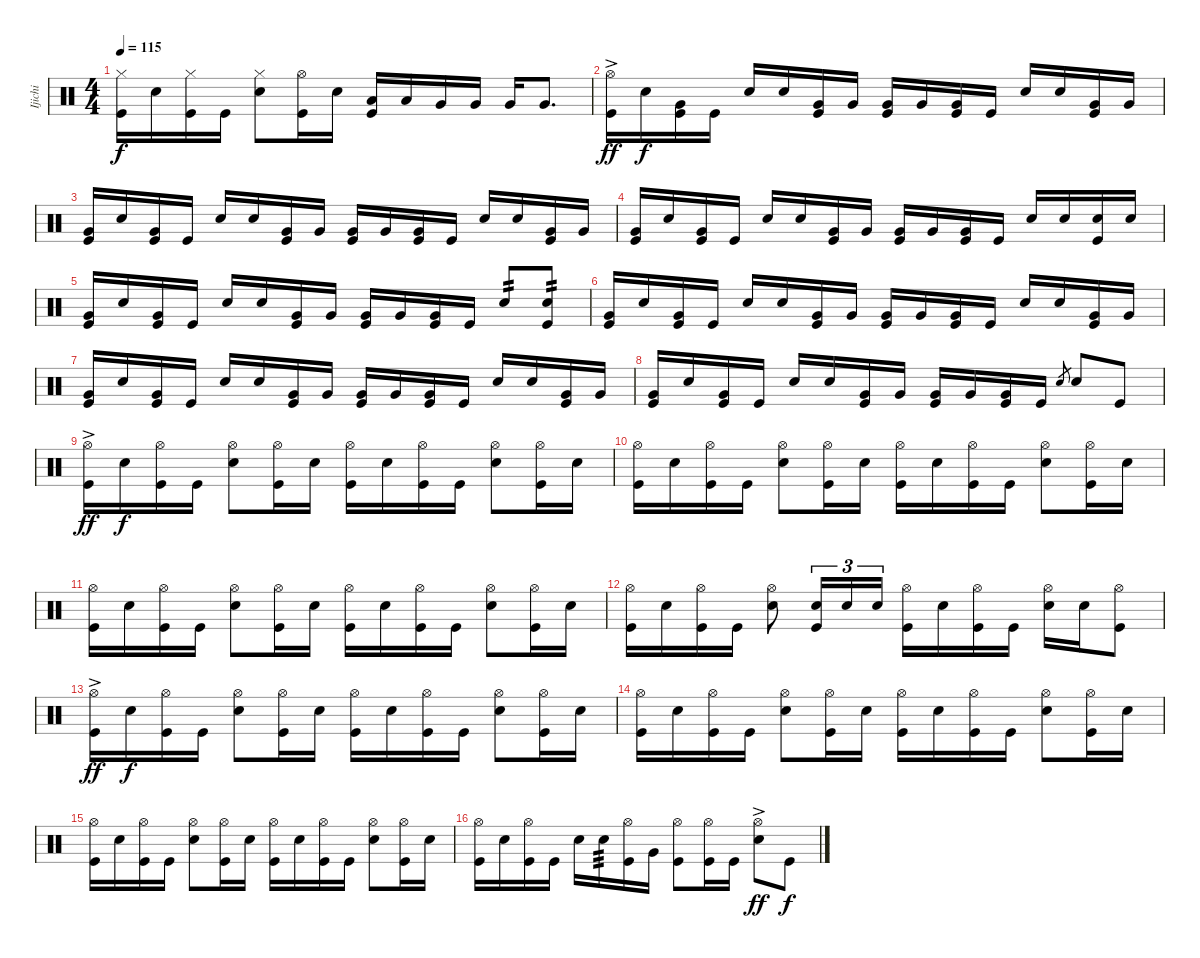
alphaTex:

\track ("Ijichi" "Ijichi") {instrument percussion}
\staff {score}
\articulation defaults
\ts (4 4)
\tempo 115
\clef neutral
\ks c
("Hi-Hat (closed)" "Kick (hit)").16{dy f} "Snare (hit) 2".16 ("Hi-Hat (closed)" "Kick (hit)").16 "Kick (hit)".16 ("Hi-Hat (closed)" "Snare (hit) 2").8 ("Hi-Hat (open)" "Kick (hit)").16 "Snare (hit) 2".16 ("Low Tom (hit)" "Kick (hit)").16 "Low Tom (hit)".16 "Very Low Tom (hit)".16 "Very Low Tom (hit)".16 "Very Low Tom (hit)".16 "Very Low Tom (hit)".8{d} |
("Hi-Hat (open)"{ac} "Kick (hit)").16{dy ff} "Snare (hit) 2".16{dy f} ("Very Low Tom (hit)" "Kick (hit)").16 "Kick (hit)".16 "Snare (hit) 2".16 "Snare (hit) 2".16 ("Very Low Tom (hit)" "Kick (hit)").16 "Very Low Tom (hit)".16 ("Very Low Tom (hit)" "Kick (hit)").16 "Very Low Tom (hit)".16 ("Very Low Tom (hit)" "Kick (hit)").16 "Kick (hit)".16 "Snare (hit) 2".16 "Snare (hit) 2".16 ("Very Low Tom (hit)" "Kick (hit)").16 "Very Low Tom (hit)".16 |
("Very Low Tom (hit)" "Kick (hit)").16 "Snare (hit) 2".16 ("Very Low Tom (hit)" "Kick (hit)").16 "Kick (hit)".16 "Snare (hit) 2".16 "Snare (hit) 2".16 ("Very Low Tom (hit)" "Kick (hit)").16 "Very Low Tom (hit)".16 ("Very Low Tom (hit)" "Kick (hit)").16 "Very Low Tom (hit)".16 ("Very Low Tom (hit)" "Kick (hit)").16 "Kick (hit)".16 "Snare (hit) 2".16 "Snare (hit) 2".16 ("Very Low Tom (hit)" "Kick (hit)").16 "Very Low Tom (hit)".16 |
("Very Low Tom (hit)" "Kick (hit)").16 "Snare (hit) 2".16 ("Very Low Tom (hit)" "Kick (hit)").16 "Kick (hit)".16 "Snare (hit) 2".16 "Snare (hit) 2".16 ("Very Low Tom (hit)" "Kick (hit)").16 "Very Low Tom (hit)".16 ("Very Low Tom (hit)" "Kick (hit)").16 "Very Low Tom (hit)".16 ("Very Low Tom (hit)" "Kick (hit)").16 "Kick (hit)".16 "Snare (hit) 2".16 "Snare (hit) 2".16 ("Snare (hit) 2" "Kick (hit)").16 "Snare (hit) 2".16 |
("Very Low Tom (hit)" "Kick (hit)").16 "Snare (hit) 2".16 ("Very Low Tom (hit)" "Kick (hit)").16 "Kick (hit)".16 "Snare (hit) 2".16 "Snare (hit) 2".16 ("Very Low Tom (hit)" "Kick (hit)").16 "Very Low Tom (hit)".16 ("Very Low Tom (hit)" "Kick (hit)").16 "Very Low Tom (hit)".16 ("Very Low Tom (hit)" "Kick (hit)").16 "Kick (hit)".16 "Snare (hit) 2".8{tp 2} ("Snare (hit) 2" "Kick (hit)").8{tp 2} |
("Very Low Tom (hit)" "Kick (hit)").16 "Snare (hit) 2".16 ("Very Low Tom (hit)" "Kick (hit)").16 "Kick (hit)".16 "Snare (hit) 2".16 "Snare (hit) 2".16 ("Very Low Tom (hit)" "Kick (hit)").16 "Very Low Tom (hit)".16 ("Very Low Tom (hit)" "Kick (hit)").16 "Very Low Tom (hit)".16 ("Very Low Tom (hit)" "Kick (hit)").16 "Kick (hit)".16 "Snare (hit) 2".16 "Snare (hit) 2".16 ("Very Low Tom (hit)" "Kick (hit)").16 "Very Low Tom (hit)".16 |
("Very Low Tom (hit)" "Kick (hit)").16 "Snare (hit) 2".16 ("Very Low Tom (hit)" "Kick (hit)").16 "Kick (hit)".16 "Snare (hit) 2".16 "Snare (hit) 2".16 ("Very Low Tom (hit)" "Kick (hit)").16 "Very Low Tom (hit)".16 ("Very Low Tom (hit)" "Kick (hit)").16 "Very Low Tom (hit)".16 ("Very Low Tom (hit)" "Kick (hit)").16 "Kick (hit)".16 "Snare (hit) 2".16 "Snare (hit) 2".16 ("Very Low Tom (hit)" "Kick (hit)").16 "Very Low Tom (hit)".16 |
("Very Low Tom (hit)" "Kick (hit)").16 "Snare (hit) 2".16 ("Very Low Tom (hit)" "Kick (hit)").16 "Kick (hit)".16 "Snare (hit) 2".16 "Snare (hit) 2".16 ("Very Low Tom (hit)" "Kick (hit)").16 "Very Low Tom (hit)".16 ("Very Low Tom (hit)" "Kick (hit)").16 "Very Low Tom (hit)".16 ("Very Low Tom (hit)" "Kick (hit)").16 "Kick (hit)".16 "Snare (hit) 2".8{gr} "Snare (hit) 2".8 "Kick (hit)".8 |
("Hi-Hat (open)"{ac} "Kick (hit)").16{dy ff} "Snare (hit) 2".16{dy f} ("Hi-Hat (open)" "Kick (hit)").16 "Kick (hit)".16 ("Hi-Hat (open)" "Snare (hit) 2").8 ("Hi-Hat (open)" "Kick (hit)").16 "Snare (hit) 2".16 ("Hi-Hat (open)" "Kick (hit)").16 "Snare (hit) 2".16 ("Hi-Hat (open)" "Kick (hit)").16 "Kick (hit)".16 ("Hi-Hat (open)" "Snare (hit) 2").8 ("Hi-Hat (open)" "Kick (hit)").16 "Snare (hit) 2".16 |
("Hi-Hat (open)" "Kick (hit)").16 "Snare (hit) 2".16 ("Hi-Hat (open)" "Kick (hit)").16 "Kick (hit)".16 ("Hi-Hat (open)" "Snare (hit) 2").8 ("Hi-Hat (open)" "Kick (hit)").16 "Snare (hit) 2".16 ("Hi-Hat (open)" "Kick (hit)").16 "Snare (hit) 2".16 ("Hi-Hat (open)" "Kick (hit)").16 "Kick (hit)".16 ("Hi-Hat (open)" "Snare (hit) 2").8 ("Hi-Hat (open)" "Kick (hit)").16 "Snare (hit) 2".16 |
("Hi-Hat (open)" "Kick (hit)").16 "Snare (hit) 2".16 ("Hi-Hat (open)" "Kick (hit)").16 "Kick (hit)".16 ("Hi-Hat (open)" "Snare (hit) 2").8 ("Hi-Hat (open)" "Kick (hit)").16 "Snare (hit) 2".16 ("Hi-Hat (open)" "Kick (hit)").16 "Snare (hit) 2".16 ("Hi-Hat (open)" "Kick (hit)").16 "Kick (hit)".16 ("Hi-Hat (open)" "Snare (hit) 2").8 ("Hi-Hat (open)" "Kick (hit)").16 "Snare (hit) 2".16 |
("Hi-Hat (open)" "Kick (hit)").16 "Snare (hit) 2".16 ("Hi-Hat (open)" "Kick (hit)").16 "Kick (hit)".16 ("Hi-Hat (open)" "Snare (hit) 2").8 ("Snare (hit) 2" "Kick (hit)").16{tu (3 2)} "Snare (hit) 2".16{tu (3 2)} "Snare (hit) 2".16{tu (3 2)} ("Hi-Hat (open)" "Kick (hit)").16 "Snare (hit) 2".16 ("Hi-Hat (open)" "Kick (hit)").16 "Kick (hit)".16 ("Hi-Hat (open)" "Snare (hit) 2").16 "Snare (hit) 2".16 ("Hi-Hat (open)" "Kick (hit)").8 |
("Hi-Hat (open)"{ac} "Kick (hit)").16{dy ff} "Snare (hit) 2".16{dy f} ("Hi-Hat (open)" "Kick (hit)").16 "Kick (hit)".16 ("Hi-Hat (open)" "Snare (hit) 2").8 ("Hi-Hat (open)" "Kick (hit)").16 "Snare (hit) 2".16 ("Hi-Hat (open)" "Kick (hit)").16 "Snare (hit) 2".16 ("Hi-Hat (open)" "Kick (hit)").16 "Kick (hit)".16 ("Hi-Hat (open)" "Snare (hit) 2").8 ("Hi-Hat (open)" "Kick (hit)").16 "Snare (hit) 2".16 |
("Hi-Hat (open)" "Kick (hit)").16 "Snare (hit) 2".16 ("Hi-Hat (open)" "Kick (hit)").16 "Kick (hit)".16 ("Hi-Hat (open)" "Snare (hit) 2").8 ("Hi-Hat (open)" "Kick (hit)").16 "Snare (hit) 2".16 ("Hi-Hat (open)" "Kick (hit)").16 "Snare (hit) 2".16 ("Hi-Hat (open)" "Kick (hit)").16 "Kick (hit)".16 ("Hi-Hat (open)" "Snare (hit) 2").8 ("Hi-Hat (open)" "Kick (hit)").16 "Snare (hit) 2".16 |
("Hi-Hat (open)" "Kick (hit)").16 "Snare (hit) 2".16 ("Hi-Hat (open)" "Kick (hit)").16 "Kick (hit)".16 ("Hi-Hat (open)" "Snare (hit) 2").8 ("Hi-Hat (open)" "Kick (hit)").16 "Snare (hit) 2".16 ("Hi-Hat (open)" "Kick (hit)").16 "Snare (hit) 2".16 ("Hi-Hat (open)" "Kick (hit)").16 "Kick (hit)".16 ("Hi-Hat (open)" "Snare (hit) 2").8 ("Hi-Hat (open)" "Kick (hit)").16 "Snare (hit) 2".16 |
("Hi-Hat (open)" "Kick (hit)").16 "Snare (hit) 2".16 ("Hi-Hat (open)" "Kick (hit)").16 "Kick (hit)".16 "Snare (hit) 2".16 "Snare (hit) 2".16{tp 3} ("Hi-Hat (open)" "Kick (hit)").16 "Very Low Tom (hit)".16 ("Hi-Hat (open)" "Kick (hit)").8 ("Hi-Hat (open)" "Kick (hit)").16 "Kick (hit)".16 ("Hi-Hat (open)"{ac} "Snare (hit) 2").8{dy ff} "Kick (hit)".8{dy f}
